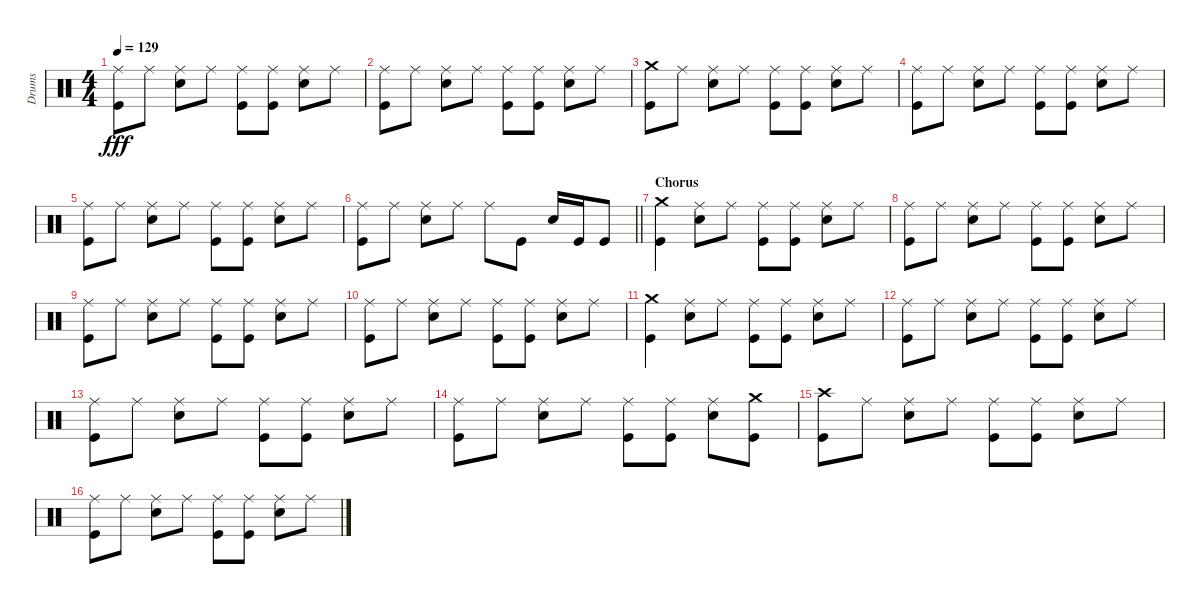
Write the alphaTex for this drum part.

\track ("Drums" "Drums") {instrument percussion}
\staff {score}
\articulation defaults
\ts (4 4)
\tempo 129
\clef neutral
\ks c
("Ride (middle)" "Kick (hit)").8{dy fff} "Ride (middle)".8 ("Ride (middle)" "Snare (hit) 2").8 "Ride (middle)".8 ("Ride (middle)" "Kick (hit)").8 ("Ride (middle)" "Kick (hit)").8 ("Ride (middle)" "Snare (hit) 2").8 "Ride (middle)".8 |
("Ride (middle)" "Kick (hit)").8 "Ride (middle)".8 ("Ride (middle)" "Snare (hit) 2").8 "Ride (middle)".8 ("Ride (middle)" "Kick (hit)").8 ("Ride (middle)" "Kick (hit)").8 ("Ride (middle)" "Snare (hit) 2").8 "Ride (middle)".8 |
("Crash medium (hit)" "Kick (hit)").8 "Ride (middle)".8 ("Ride (middle)" "Snare (hit) 2").8 "Ride (middle)".8 ("Ride (middle)" "Kick (hit)").8 ("Ride (middle)" "Kick (hit)").8 ("Ride (middle)" "Snare (hit) 2").8 "Ride (middle)".8 |
("Ride (middle)" "Kick (hit)").8 "Ride (middle)".8 ("Ride (middle)" "Snare (hit) 2").8 "Ride (middle)".8 ("Ride (middle)" "Kick (hit)").8 ("Ride (middle)" "Kick (hit)").8 ("Ride (middle)" "Snare (hit) 2").8 "Ride (middle)".8 |
("Ride (middle)" "Kick (hit)").8 "Ride (middle)".8 ("Ride (middle)" "Snare (hit) 2").8 "Ride (middle)".8 ("Ride (middle)" "Kick (hit)").8 ("Ride (middle)" "Kick (hit)").8 ("Ride (middle)" "Snare (hit) 2").8 "Ride (middle)".8 |
\barLineRight lightlight
("Ride (middle)" "Kick (hit)").8 "Ride (middle)".8 ("Ride (middle)" "Snare (hit) 2").8 "Ride (middle)".8 "Ride (middle)".8 "Kick (hit)".8 "Snare (hit) 2".16 "Kick (hit)".16 "Kick (hit)".8 |
\section ("" "Chorus")
("Crash medium (hit)" "Kick (hit)").4 ("Ride (middle)" "Snare (hit) 2").8 "Ride (middle)".8 ("Ride (middle)" "Kick (hit)").8 ("Ride (middle)" "Kick (hit)").8 ("Ride (middle)" "Snare (hit) 2").8 "Ride (middle)".8 |
("Ride (middle)" "Kick (hit)").8 "Ride (middle)".8 ("Ride (middle)" "Snare (hit) 2").8 "Ride (middle)".8 ("Ride (middle)" "Kick (hit)").8 ("Ride (middle)" "Kick (hit)").8 ("Ride (middle)" "Snare (hit) 2").8 "Ride (middle)".8 |
("Ride (middle)" "Kick (hit)").8 "Ride (middle)".8 ("Ride (middle)" "Snare (hit) 2").8 "Ride (middle)".8 ("Ride (middle)" "Kick (hit)").8 ("Ride (middle)" "Kick (hit)").8 ("Ride (middle)" "Snare (hit) 2").8 "Ride (middle)".8 |
("Ride (middle)" "Kick (hit)").8 "Ride (middle)".8 ("Ride (middle)" "Snare (hit) 2").8 "Ride (middle)".8 ("Ride (middle)" "Kick (hit)").8 ("Ride (middle)" "Kick (hit)").8 ("Ride (middle)" "Snare (hit) 2").8 "Ride (middle)".8 |
("Crash medium (hit)" "Kick (hit)").4 ("Ride (middle)" "Snare (hit) 2").8 "Ride (middle)".8 ("Ride (middle)" "Kick (hit)").8 ("Ride (middle)" "Kick (hit)").8 ("Ride (middle)" "Snare (hit) 2").8 "Ride (middle)".8 |
("Ride (middle)" "Kick (hit)").8 "Ride (middle)".8 ("Ride (middle)" "Snare (hit) 2").8 "Ride (middle)".8 ("Ride (middle)" "Kick (hit)").8 ("Ride (middle)" "Kick (hit)").8 ("Ride (middle)" "Snare (hit) 2").8 "Ride (middle)".8 |
("Ride (middle)" "Kick (hit)").8 "Ride (middle)".8 ("Ride (middle)" "Snare (hit) 2").8 "Ride (middle)".8 ("Ride (middle)" "Kick (hit)").8 ("Ride (middle)" "Kick (hit)").8 ("Ride (middle)" "Snare (hit) 2").8 "Ride (middle)".8 |
("Ride (middle)" "Kick (hit)").8 "Ride (middle)".8 ("Ride (middle)" "Snare (hit) 2").8 "Ride (middle)".8 ("Ride (middle)" "Kick (hit)").8 ("Ride (middle)" "Kick (hit)").8 ("Ride (middle)" "Snare (hit) 2").8 ("Crash medium (hit)" "Kick (hit)").8 |
("Crash high (hit)" "Kick (hit)").8 "Ride (middle)".8 ("Ride (middle)" "Snare (hit) 2").8 "Ride (middle)".8 ("Ride (middle)" "Kick (hit)").8 ("Ride (middle)" "Kick (hit)").8 ("Ride (middle)" "Snare (hit) 2").8 "Ride (middle)".8 |
("Ride (middle)" "Kick (hit)").8 "Ride (middle)".8 ("Ride (middle)" "Snare (hit) 2").8 "Ride (middle)".8 ("Ride (middle)" "Kick (hit)").8 ("Ride (middle)" "Kick (hit)").8 ("Ride (middle)" "Snare (hit) 2").8 "Ride (middle)".8
